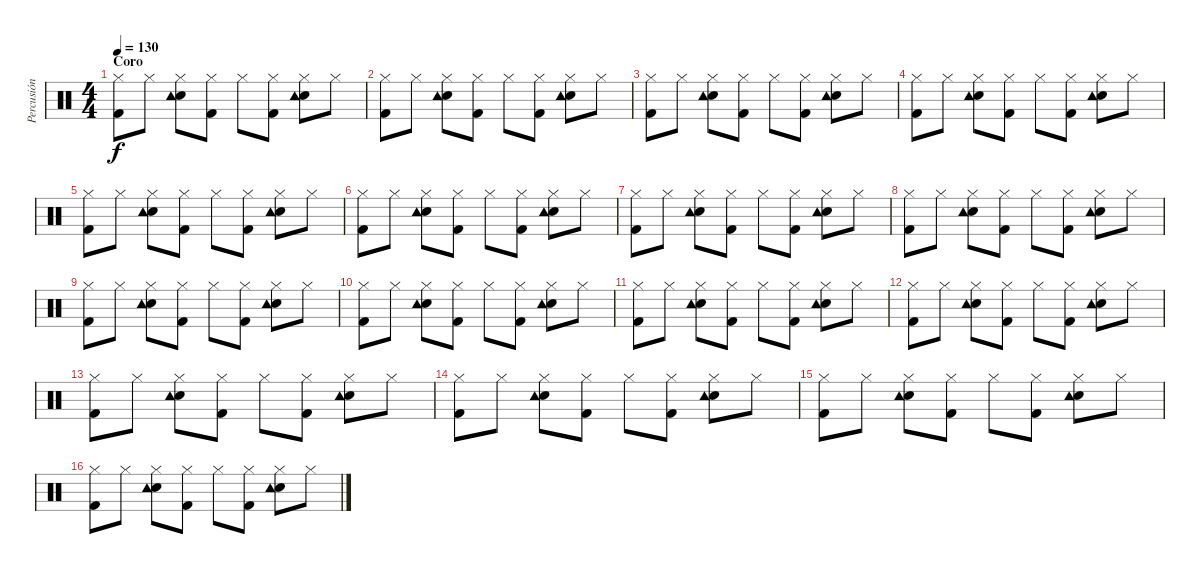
\track ("Percusión" "Percusión") {instrument percussion}
\staff {score}
\articulation defaults
\ts (4 4)
\section ("" "Coro")
\tempo 130
\clef neutral
\ks c
("Hi-Hat (closed)" "Kick (hit) 2").8{dy f} "Hi-Hat (closed)".8 ("Hi-Hat (closed)" "Electric Snare (hit)" "Tambourine (hit)").8 ("Hi-Hat (closed)" "Kick (hit) 2").8 "Hi-Hat (closed)".8 ("Hi-Hat (closed)" "Kick (hit) 2").8 ("Hi-Hat (closed)" "Electric Snare (hit)" "Tambourine (hit)").8 "Hi-Hat (closed)".8 |
("Hi-Hat (closed)" "Kick (hit) 2").8 "Hi-Hat (closed)".8 ("Hi-Hat (closed)" "Electric Snare (hit)" "Tambourine (hit)").8 ("Hi-Hat (closed)" "Kick (hit) 2").8 "Hi-Hat (closed)".8 ("Hi-Hat (closed)" "Kick (hit) 2").8 ("Hi-Hat (closed)" "Electric Snare (hit)" "Tambourine (hit)").8 "Hi-Hat (closed)".8 |
("Hi-Hat (closed)" "Kick (hit) 2").8 "Hi-Hat (closed)".8 ("Hi-Hat (closed)" "Electric Snare (hit)" "Tambourine (hit)").8 ("Hi-Hat (closed)" "Kick (hit) 2").8 "Hi-Hat (closed)".8 ("Hi-Hat (closed)" "Kick (hit) 2").8 ("Hi-Hat (closed)" "Electric Snare (hit)" "Tambourine (hit)").8 "Hi-Hat (closed)".8 |
("Hi-Hat (closed)" "Kick (hit) 2").8 "Hi-Hat (closed)".8 ("Hi-Hat (closed)" "Electric Snare (hit)" "Tambourine (hit)").8 ("Hi-Hat (closed)" "Kick (hit) 2").8 "Hi-Hat (closed)".8 ("Hi-Hat (closed)" "Kick (hit) 2").8 ("Hi-Hat (closed)" "Electric Snare (hit)" "Tambourine (hit)").8 "Hi-Hat (closed)".8 |
("Hi-Hat (closed)" "Kick (hit) 2").8 "Hi-Hat (closed)".8 ("Hi-Hat (closed)" "Electric Snare (hit)" "Tambourine (hit)").8 ("Hi-Hat (closed)" "Kick (hit) 2").8 "Hi-Hat (closed)".8 ("Hi-Hat (closed)" "Kick (hit) 2").8 ("Hi-Hat (closed)" "Electric Snare (hit)" "Tambourine (hit)").8 "Hi-Hat (closed)".8 |
("Hi-Hat (closed)" "Kick (hit) 2").8 "Hi-Hat (closed)".8 ("Hi-Hat (closed)" "Electric Snare (hit)" "Tambourine (hit)").8 ("Hi-Hat (closed)" "Kick (hit) 2").8 "Hi-Hat (closed)".8 ("Hi-Hat (closed)" "Kick (hit) 2").8 ("Hi-Hat (closed)" "Electric Snare (hit)" "Tambourine (hit)").8 "Hi-Hat (closed)".8 |
("Hi-Hat (closed)" "Kick (hit) 2").8 "Hi-Hat (closed)".8 ("Hi-Hat (closed)" "Electric Snare (hit)" "Tambourine (hit)").8 ("Hi-Hat (closed)" "Kick (hit) 2").8 "Hi-Hat (closed)".8 ("Hi-Hat (closed)" "Kick (hit) 2").8 ("Hi-Hat (closed)" "Electric Snare (hit)" "Tambourine (hit)").8 "Hi-Hat (closed)".8 |
("Hi-Hat (closed)" "Kick (hit) 2").8 "Hi-Hat (closed)".8 ("Hi-Hat (closed)" "Electric Snare (hit)" "Tambourine (hit)").8 ("Hi-Hat (closed)" "Kick (hit) 2").8 "Hi-Hat (closed)".8 ("Hi-Hat (closed)" "Kick (hit) 2").8 ("Hi-Hat (closed)" "Electric Snare (hit)" "Tambourine (hit)").8 "Hi-Hat (closed)".8 |
("Hi-Hat (closed)" "Kick (hit) 2").8 "Hi-Hat (closed)".8 ("Hi-Hat (closed)" "Electric Snare (hit)" "Tambourine (hit)").8 ("Hi-Hat (closed)" "Kick (hit) 2").8 "Hi-Hat (closed)".8 ("Hi-Hat (closed)" "Kick (hit) 2").8 ("Hi-Hat (closed)" "Electric Snare (hit)" "Tambourine (hit)").8 "Hi-Hat (closed)".8 |
("Hi-Hat (closed)" "Kick (hit) 2").8 "Hi-Hat (closed)".8 ("Hi-Hat (closed)" "Electric Snare (hit)" "Tambourine (hit)").8 ("Hi-Hat (closed)" "Kick (hit) 2").8 "Hi-Hat (closed)".8 ("Hi-Hat (closed)" "Kick (hit) 2").8 ("Hi-Hat (closed)" "Electric Snare (hit)" "Tambourine (hit)").8 "Hi-Hat (closed)".8 |
("Hi-Hat (closed)" "Kick (hit) 2").8 "Hi-Hat (closed)".8 ("Hi-Hat (closed)" "Electric Snare (hit)" "Tambourine (hit)").8 ("Hi-Hat (closed)" "Kick (hit) 2").8 "Hi-Hat (closed)".8 ("Hi-Hat (closed)" "Kick (hit) 2").8 ("Hi-Hat (closed)" "Electric Snare (hit)" "Tambourine (hit)").8 "Hi-Hat (closed)".8 |
("Hi-Hat (closed)" "Kick (hit) 2").8 "Hi-Hat (closed)".8 ("Hi-Hat (closed)" "Electric Snare (hit)" "Tambourine (hit)").8 ("Hi-Hat (closed)" "Kick (hit) 2").8 "Hi-Hat (closed)".8 ("Hi-Hat (closed)" "Kick (hit) 2").8 ("Hi-Hat (closed)" "Electric Snare (hit)" "Tambourine (hit)").8 "Hi-Hat (closed)".8 |
("Hi-Hat (closed)" "Kick (hit) 2").8 "Hi-Hat (closed)".8 ("Hi-Hat (closed)" "Electric Snare (hit)" "Tambourine (hit)").8 ("Hi-Hat (closed)" "Kick (hit) 2").8 "Hi-Hat (closed)".8 ("Hi-Hat (closed)" "Kick (hit) 2").8 ("Hi-Hat (closed)" "Electric Snare (hit)" "Tambourine (hit)").8 "Hi-Hat (closed)".8 |
("Hi-Hat (closed)" "Kick (hit) 2").8 "Hi-Hat (closed)".8 ("Hi-Hat (closed)" "Electric Snare (hit)" "Tambourine (hit)").8 ("Hi-Hat (closed)" "Kick (hit) 2").8 "Hi-Hat (closed)".8 ("Hi-Hat (closed)" "Kick (hit) 2").8 ("Hi-Hat (closed)" "Electric Snare (hit)" "Tambourine (hit)").8 "Hi-Hat (closed)".8 |
("Hi-Hat (closed)" "Kick (hit) 2").8 "Hi-Hat (closed)".8 ("Hi-Hat (closed)" "Electric Snare (hit)" "Tambourine (hit)").8 ("Hi-Hat (closed)" "Kick (hit) 2").8 "Hi-Hat (closed)".8 ("Hi-Hat (closed)" "Kick (hit) 2").8 ("Hi-Hat (closed)" "Electric Snare (hit)" "Tambourine (hit)").8 "Hi-Hat (closed)".8 |
("Hi-Hat (closed)" "Kick (hit) 2").8 "Hi-Hat (closed)".8 ("Hi-Hat (closed)" "Electric Snare (hit)" "Tambourine (hit)").8 ("Hi-Hat (closed)" "Kick (hit) 2").8 "Hi-Hat (closed)".8 ("Hi-Hat (closed)" "Kick (hit) 2").8 ("Hi-Hat (closed)" "Electric Snare (hit)" "Tambourine (hit)").8 "Hi-Hat (closed)".8
